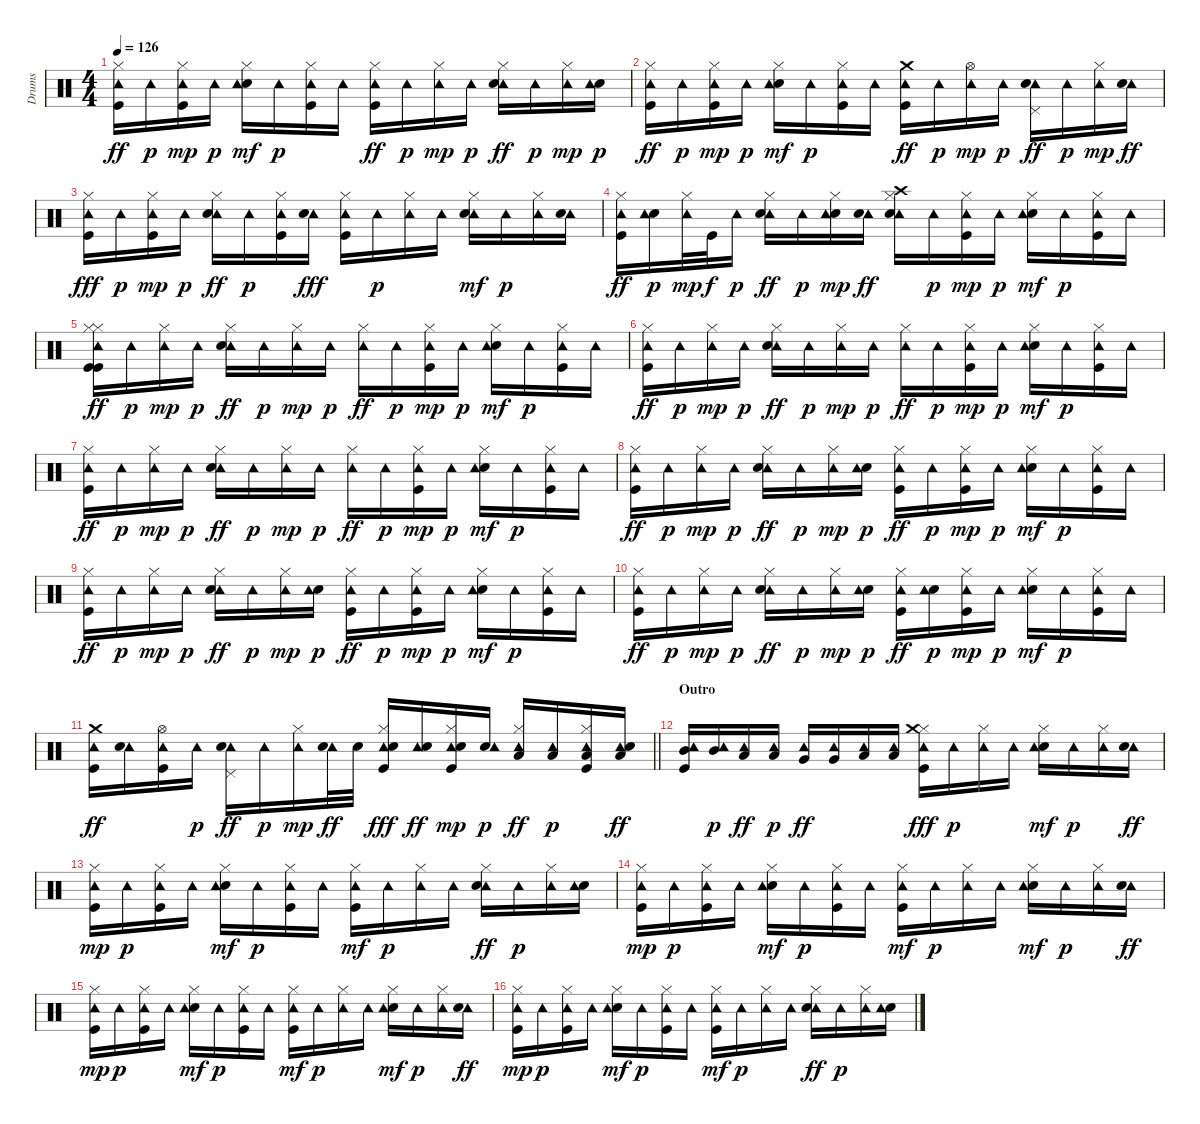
\track ("Drums" "Drums") {instrument percussion}
\staff {score}
\articulation defaults
\ts (4 4)
\tempo 126
\clef neutral
\ks c
("Kick (hit)" "Tambourine (hit)" "Hi-Hat (closed)").16{dy ff} "Tambourine (hit)".16{dy p} ("Tambourine (hit)" "Kick (hit)" "Hi-Hat (closed)").16{dy mp} "Tambourine (hit)".16{dy p} ("Electric Snare (hit)" "Tambourine (hit)" "Hi-Hat (closed)").16{dy mf} "Tambourine (hit)".16{dy p} ("Kick (hit)" "Tambourine (hit)" "Hi-Hat (closed)").16 "Tambourine (hit)".16 ("Tambourine (hit)" "Kick (hit)" "Hi-Hat (closed)").16{dy ff} "Tambourine (hit)".16{dy p} ("Tambourine (hit)" "Hi-Hat (closed)").16{dy mp} "Tambourine (hit)".16{dy p} ("Tambourine (hit)" "Hi-Hat (closed)" "Electric Snare (hit)").16{dy ff} "Tambourine (hit)".16{dy p} ("Tambourine (hit)" "Hi-Hat (closed)").16{dy mp} ("Electric Snare (hit)" "Tambourine (hit)").16{dy p} |
("Kick (hit)" "Tambourine (hit)" "Hi-Hat (closed)").16{dy ff} "Tambourine (hit)".16{dy p} ("Tambourine (hit)" "Kick (hit)" "Hi-Hat (closed)").16{dy mp} "Tambourine (hit)".16{dy p} ("Electric Snare (hit)" "Tambourine (hit)" "Hi-Hat (closed)").16{dy mf} "Tambourine (hit)".16{dy p} ("Kick (hit)" "Tambourine (hit)" "Hi-Hat (closed)").16 "Tambourine (hit)".16 ("Tambourine (hit)" "Kick (hit)" "Crash medium (hit)").16{dy ff} "Tambourine (hit)".16{dy p} ("Tambourine (hit)" "Hi-Hat (open)").16{dy mp} "Tambourine (hit)".16{dy p} ("Tambourine (hit)" "Pedal Hi-Hat (hit)" "Electric Snare (hit)").16{dy ff} "Tambourine (hit)".16{dy p} ("Tambourine (hit)" "Hi-Hat (closed)").16{dy mp} ("Tambourine (hit)" "Electric Snare (hit)").16{dy ff} |
("Tambourine (hit)" "Hi-Hat (closed)" "Kick (hit)").16{dy fff} "Tambourine (hit)".16{dy p} ("Tambourine (hit)" "Kick (hit)" "Hi-Hat (closed)").16{dy mp} "Tambourine (hit)".16{dy p} ("Tambourine (hit)" "Electric Snare (hit)" "Hi-Hat (closed)").16{dy ff} "Tambourine (hit)".16{dy p} ("Kick (hit)" "Tambourine (hit)" "Hi-Hat (closed)").16 ("Tambourine (hit)" "Electric Snare (hit)").16{dy fff} ("Tambourine (hit)" "Kick (hit)" "Hi-Hat (closed)").16 "Tambourine (hit)".16{dy p} ("Tambourine (hit)" "Hi-Hat (closed)").16 "Tambourine (hit)".16 ("Tambourine (hit)" "Hi-Hat (closed)" "Electric Snare (hit)").16{dy mf} "Tambourine (hit)".16{dy p} ("Hi-Hat (closed)" "Tambourine (hit)").16 ("Tambourine (hit)" "Electric Snare (hit)").16 |
("Tambourine (hit)" "Kick (hit)" "Hi-Hat (closed)").16{dy ff} ("Electric Snare (hit)" "Tambourine (hit)").16{dy p} ("Tambourine (hit)" "Hi-Hat (closed)").32{dy mp} "Kick (hit)".32{dy f} "Tambourine (hit)".16{dy p} ("Tambourine (hit)" "Hi-Hat (closed)" "Electric Snare (hit)").16{dy ff} "Tambourine (hit)".16{dy p} ("Electric Snare (hit)" "Tambourine (hit)" "Hi-Hat (closed)").16{dy mp} ("Tambourine (hit)" "Electric Snare (hit)").16{dy ff} ("Crash high (hit)" "Tambourine (hit)" "Electric Snare (hit)" "Hi-Hat (closed)").16 "Tambourine (hit)".16{dy p} ("Tambourine (hit)" "Kick (hit)" "Hi-Hat (closed)").16{dy mp} "Tambourine (hit)".16{dy p} ("Electric Snare (hit)" "Tambourine (hit)" "Hi-Hat (closed)").16{dy mf} "Tambourine (hit)".16{dy p} ("Kick (hit)" "Tambourine (hit)" "Hi-Hat (closed)").16 "Tambourine (hit)".16 |
("Tambourine (hit)" "Kick (hit)" "Kick (hit)" "Hi-Hat (closed)" "Hi-Hat (closed)").16{dy ff} "Tambourine (hit)".16{dy p} ("Tambourine (hit)" "Hi-Hat (closed)").16{dy mp} "Tambourine (hit)".16{dy p} ("Tambourine (hit)" "Hi-Hat (closed)" "Electric Snare (hit)").16{dy ff} "Tambourine (hit)".16{dy p} ("Tambourine (hit)" "Hi-Hat (closed)").16{dy mp} "Tambourine (hit)".16{dy p} ("Tambourine (hit)" "Hi-Hat (closed)").16{dy ff} "Tambourine (hit)".16{dy p} ("Tambourine (hit)" "Kick (hit)" "Hi-Hat (closed)").16{dy mp} "Tambourine (hit)".16{dy p} ("Electric Snare (hit)" "Tambourine (hit)" "Hi-Hat (closed)").16{dy mf} "Tambourine (hit)".16{dy p} ("Kick (hit)" "Tambourine (hit)" "Hi-Hat (closed)").16 "Tambourine (hit)".16 |
("Tambourine (hit)" "Kick (hit)" "Hi-Hat (closed)").16{dy ff} "Tambourine (hit)".16{dy p} ("Tambourine (hit)" "Hi-Hat (closed)").16{dy mp} "Tambourine (hit)".16{dy p} ("Tambourine (hit)" "Hi-Hat (closed)" "Electric Snare (hit)").16{dy ff} "Tambourine (hit)".16{dy p} ("Tambourine (hit)" "Hi-Hat (closed)").16{dy mp} "Tambourine (hit)".16{dy p} ("Tambourine (hit)" "Hi-Hat (closed)").16{dy ff} "Tambourine (hit)".16{dy p} ("Tambourine (hit)" "Kick (hit)" "Hi-Hat (closed)").16{dy mp} "Tambourine (hit)".16{dy p} ("Electric Snare (hit)" "Tambourine (hit)" "Hi-Hat (closed)").16{dy mf} "Tambourine (hit)".16{dy p} ("Kick (hit)" "Tambourine (hit)" "Hi-Hat (closed)").16 "Tambourine (hit)".16 |
("Tambourine (hit)" "Kick (hit)" "Hi-Hat (closed)").16{dy ff} "Tambourine (hit)".16{dy p} ("Tambourine (hit)" "Hi-Hat (closed)").16{dy mp} "Tambourine (hit)".16{dy p} ("Tambourine (hit)" "Hi-Hat (closed)" "Electric Snare (hit)").16{dy ff} "Tambourine (hit)".16{dy p} ("Tambourine (hit)" "Hi-Hat (closed)").16{dy mp} "Tambourine (hit)".16{dy p} ("Tambourine (hit)" "Hi-Hat (closed)").16{dy ff} "Tambourine (hit)".16{dy p} ("Tambourine (hit)" "Kick (hit)" "Hi-Hat (closed)").16{dy mp} "Tambourine (hit)".16{dy p} ("Electric Snare (hit)" "Tambourine (hit)" "Hi-Hat (closed)").16{dy mf} "Tambourine (hit)".16{dy p} ("Kick (hit)" "Tambourine (hit)" "Hi-Hat (closed)").16 "Tambourine (hit)".16 |
("Tambourine (hit)" "Kick (hit)" "Hi-Hat (closed)").16{dy ff} "Tambourine (hit)".16{dy p} ("Tambourine (hit)" "Hi-Hat (closed)").16{dy mp} "Tambourine (hit)".16{dy p} ("Tambourine (hit)" "Hi-Hat (closed)" "Electric Snare (hit)").16{dy ff} "Tambourine (hit)".16{dy p} ("Tambourine (hit)" "Hi-Hat (closed)").16{dy mp} ("Electric Snare (hit)" "Tambourine (hit)").16{dy p} ("Kick (hit)" "Tambourine (hit)" "Hi-Hat (closed)").16{dy ff} "Tambourine (hit)".16{dy p} ("Tambourine (hit)" "Kick (hit)" "Hi-Hat (closed)").16{dy mp} "Tambourine (hit)".16{dy p} ("Electric Snare (hit)" "Tambourine (hit)" "Hi-Hat (closed)").16{dy mf} "Tambourine (hit)".16{dy p} ("Kick (hit)" "Tambourine (hit)" "Hi-Hat (closed)").16 "Tambourine (hit)".16 |
("Tambourine (hit)" "Kick (hit)" "Hi-Hat (closed)").16{dy ff} "Tambourine (hit)".16{dy p} ("Tambourine (hit)" "Hi-Hat (closed)").16{dy mp} "Tambourine (hit)".16{dy p} ("Tambourine (hit)" "Hi-Hat (closed)" "Electric Snare (hit)").16{dy ff} "Tambourine (hit)".16{dy p} ("Tambourine (hit)" "Hi-Hat (closed)").16{dy mp} ("Electric Snare (hit)" "Tambourine (hit)").16{dy p} ("Kick (hit)" "Tambourine (hit)" "Hi-Hat (closed)").16{dy ff} "Tambourine (hit)".16{dy p} ("Tambourine (hit)" "Kick (hit)" "Hi-Hat (closed)").16{dy mp} "Tambourine (hit)".16{dy p} ("Electric Snare (hit)" "Tambourine (hit)" "Hi-Hat (closed)").16{dy mf} "Tambourine (hit)".16{dy p} ("Kick (hit)" "Tambourine (hit)" "Hi-Hat (closed)").16 "Tambourine (hit)".16 |
("Tambourine (hit)" "Kick (hit)" "Hi-Hat (closed)").16{dy ff} "Tambourine (hit)".16{dy p} ("Tambourine (hit)" "Hi-Hat (closed)").16{dy mp} "Tambourine (hit)".16{dy p} ("Tambourine (hit)" "Hi-Hat (closed)" "Electric Snare (hit)").16{dy ff} "Tambourine (hit)".16{dy p} ("Tambourine (hit)" "Hi-Hat (closed)").16{dy mp} ("Electric Snare (hit)" "Tambourine (hit)").16{dy p} ("Kick (hit)" "Tambourine (hit)" "Hi-Hat (closed)").16{dy ff} ("Electric Snare (hit)" "Tambourine (hit)").16{dy p} ("Tambourine (hit)" "Kick (hit)" "Hi-Hat (closed)").16{dy mp} "Tambourine (hit)".16{dy p} ("Electric Snare (hit)" "Tambourine (hit)" "Hi-Hat (closed)").16{dy mf} "Tambourine (hit)".16{dy p} ("Kick (hit)" "Tambourine (hit)" "Hi-Hat (closed)").16 "Tambourine (hit)".16 |
\barLineRight lightlight
("Tambourine (hit)" "Kick (hit)" "Crash medium (hit)").16{dy ff} ("Tambourine (hit)" "Electric Snare (hit)").16 ("Tambourine (hit)" "Hi-Hat (open)" "Kick (hit)").16 "Tambourine (hit)".16{dy p} ("Tambourine (hit)" "Pedal Hi-Hat (hit)" "Electric Snare (hit)").16{dy ff} "Tambourine (hit)".16{dy p} ("Tambourine (hit)" "Hi-Hat (closed)").16{dy mp} ("Tambourine (hit)" "Electric Snare (hit)").32{dy ff} "Electric Snare (hit)".32 ("Tambourine (hit)" "Hi-Hat (closed)" "Electric Snare (hit)" "Kick (hit)").16{dy fff} ("Tambourine (hit)" "Electric Snare (hit)").16{dy ff} ("Tambourine (hit)" "Electric Snare (hit)" "Kick (hit)" "Hi-Hat (closed)").16{dy mp} ("Electric Snare (hit)" "Tambourine (hit)").16{dy p} ("Tambourine (hit)" "Low Tom (hit)" "Hi-Hat (closed)").16{dy ff} ("Low Tom (hit)" "Tambourine (hit)").16{dy p} ("Kick (hit)" "Low Tom (hit)" "Tambourine (hit)" "Hi-Hat (closed)").16 ("Low Tom (hit)" "Tambourine (hit)" "Electric Snare (hit)").16{dy ff} |
\section ("" "Outro")
("Tambourine (hit)" "Mid Tom (hit)" "Kick (hit)").16 ("Mid Tom (hit)" "Tambourine (hit)").16{dy p} ("Tambourine (hit)" "Low Tom (hit)").16{dy ff} ("Low Tom (hit)" "Tambourine (hit)").16{dy p} ("Tambourine (hit)" "Very Low Tom (hit)").16{dy ff} ("Tambourine (hit)" "Very Low Tom (hit)").16 ("Tambourine (hit)" "Low Floor Tom (hit)").16 ("Tambourine (hit)" "Low Floor Tom (hit)").16 ("Tambourine (hit)" "Kick (hit)" "Hi-Hat (closed)" "Crash medium (hit)").16{dy fff} "Tambourine (hit)".16{dy p} ("Tambourine (hit)" "Hi-Hat (closed)").16 "Tambourine (hit)".16 ("Electric Snare (hit)" "Tambourine (hit)" "Hi-Hat (closed)").16{dy mf} "Tambourine (hit)".16{dy p} ("Tambourine (hit)" "Hi-Hat (closed)").16 ("Tambourine (hit)" "Electric Snare (hit)").16{dy ff} |
("Kick (hit)" "Tambourine (hit)" "Hi-Hat (closed)").16{dy mp} "Tambourine (hit)".16{dy p} ("Hi-Hat (closed)" "Tambourine (hit)" "Kick (hit)").16 "Tambourine (hit)".16 ("Electric Snare (hit)" "Tambourine (hit)" "Hi-Hat (closed)").16{dy mf} "Tambourine (hit)".16{dy p} ("Tambourine (hit)" "Hi-Hat (closed)" "Kick (hit)").16 "Tambourine (hit)".16 ("Tambourine (hit)" "Kick (hit)" "Hi-Hat (closed)").16{dy mf} "Tambourine (hit)".16{dy p} ("Tambourine (hit)" "Hi-Hat (closed)").16 "Tambourine (hit)".16 ("Hi-Hat (closed)" "Tambourine (hit)" "Electric Snare (hit)").16{dy ff} "Tambourine (hit)".16{dy p} ("Hi-Hat (closed)" "Tambourine (hit)").16 ("Electric Snare (hit)" "Tambourine (hit)").16 |
("Hi-Hat (closed)" "Tambourine (hit)" "Kick (hit)").16{dy mp} "Tambourine (hit)".16{dy p} ("Hi-Hat (closed)" "Kick (hit)" "Tambourine (hit)").16 "Tambourine (hit)".16 ("Hi-Hat (closed)" "Electric Snare (hit)" "Tambourine (hit)").16{dy mf} "Tambourine (hit)".16{dy p} ("Tambourine (hit)" "Kick (hit)" "Hi-Hat (closed)").16 "Tambourine (hit)".16 ("Tambourine (hit)" "Kick (hit)" "Hi-Hat (closed)").16{dy mf} "Tambourine (hit)".16{dy p} ("Tambourine (hit)" "Hi-Hat (closed)").16 "Tambourine (hit)".16 ("Hi-Hat (closed)" "Electric Snare (hit)" "Tambourine (hit)").16{dy mf} "Tambourine (hit)".16{dy p} ("Tambourine (hit)" "Hi-Hat (closed)").16 ("Tambourine (hit)" "Electric Snare (hit)").16{dy ff} |
("Tambourine (hit)" "Hi-Hat (closed)" "Kick (hit)").16{dy mp} "Tambourine (hit)".16{dy p} ("Hi-Hat (closed)" "Tambourine (hit)" "Kick (hit)").16 "Tambourine (hit)".16 ("Electric Snare (hit)" "Tambourine (hit)" "Hi-Hat (closed)").16{dy mf} "Tambourine (hit)".16{dy p} ("Tambourine (hit)" "Kick (hit)" "Hi-Hat (closed)").16 "Tambourine (hit)".16 ("Tambourine (hit)" "Kick (hit)" "Hi-Hat (closed)").16{dy mf} "Tambourine (hit)".16{dy p} ("Tambourine (hit)" "Hi-Hat (closed)").16 "Tambourine (hit)".16 ("Electric Snare (hit)" "Tambourine (hit)" "Hi-Hat (closed)").16{dy mf} "Tambourine (hit)".16{dy p} ("Hi-Hat (closed)" "Tambourine (hit)").16 ("Tambourine (hit)" "Electric Snare (hit)").16{dy ff} |
("Hi-Hat (closed)" "Tambourine (hit)" "Kick (hit)").16{dy mp} "Tambourine (hit)".16{dy p} ("Tambourine (hit)" "Kick (hit)" "Hi-Hat (closed)").16 "Tambourine (hit)".16 ("Electric Snare (hit)" "Hi-Hat (closed)" "Tambourine (hit)").16{dy mf} "Tambourine (hit)".16{dy p} ("Hi-Hat (closed)" "Kick (hit)" "Tambourine (hit)").16 "Tambourine (hit)".16 ("Tambourine (hit)" "Kick (hit)" "Hi-Hat (closed)").16{dy mf} "Tambourine (hit)".16{dy p} ("Hi-Hat (closed)" "Tambourine (hit)").16 "Tambourine (hit)".16 ("Hi-Hat (closed)" "Tambourine (hit)" "Electric Snare (hit)").16{dy ff} "Tambourine (hit)".16{dy p} ("Tambourine (hit)" "Hi-Hat (closed)").16 ("Electric Snare (hit)" "Tambourine (hit)").16
